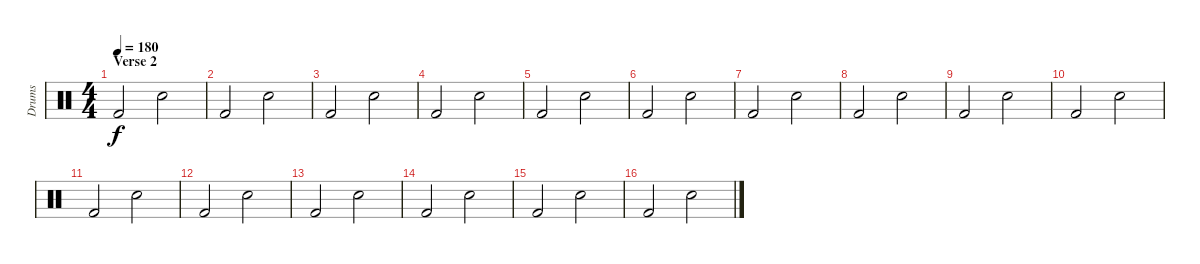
\track ("Drums" "Drums") {instrument percussion}
\staff {score}
\articulation defaults
\ts (4 4)
\section ("" "Verse 2")
\tempo 180
\clef neutral
\ks c "Kick (hit) 2".2{dy f} "Snare (hit) 2".2
|
"Kick (hit) 2".2 "Snare (hit) 2".2 |
"Kick (hit) 2".2 "Snare (hit) 2".2 |
"Kick (hit) 2".2 "Snare (hit) 2".2 |
"Kick (hit) 2".2 "Snare (hit) 2".2 |
"Kick (hit) 2".2 "Snare (hit) 2".2 |
"Kick (hit) 2".2 "Snare (hit) 2".2 |
"Kick (hit) 2".2 "Snare (hit) 2".2 |
"Kick (hit) 2".2 "Snare (hit) 2".2 |
"Kick (hit) 2".2 "Snare (hit) 2".2 |
"Kick (hit) 2".2 "Snare (hit) 2".2 |
"Kick (hit) 2".2 "Snare (hit) 2".2 |
"Kick (hit) 2".2 "Snare (hit) 2".2 |
"Kick (hit) 2".2 "Snare (hit) 2".2 |
"Kick (hit) 2".2 "Snare (hit) 2".2 |
"Kick (hit) 2".2 "Snare (hit) 2".2
